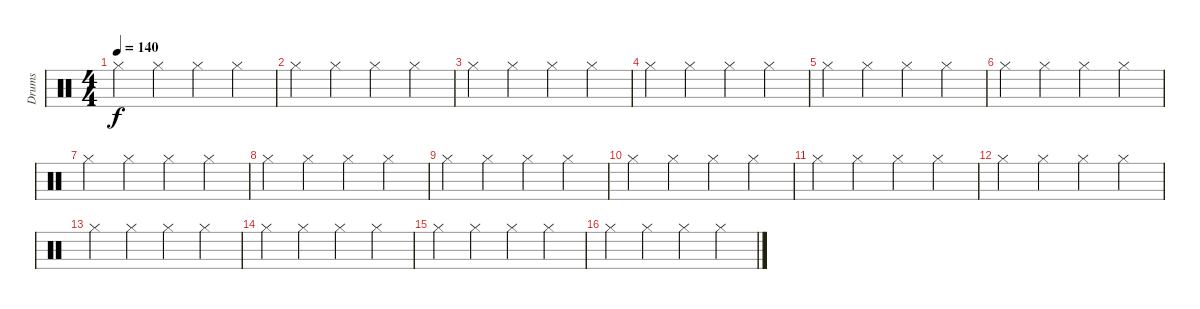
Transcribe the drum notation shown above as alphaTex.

\track ("Drums" "Drums") {instrument percussion}
\staff {score}
\articulation defaults
\ts (4 4)
\tempo 140
\clef neutral
\ks c "Hi-Hat (closed)".4{dy f} "Hi-Hat (closed)".4 "Hi-Hat (closed)".4 "Hi-Hat (closed)".4
|
"Hi-Hat (closed)".4 "Hi-Hat (closed)".4 "Hi-Hat (closed)".4 "Hi-Hat (closed)".4 |
"Hi-Hat (closed)".4 "Hi-Hat (closed)".4 "Hi-Hat (closed)".4 "Hi-Hat (closed)".4 |
"Hi-Hat (closed)".4 "Hi-Hat (closed)".4 "Hi-Hat (closed)".4 "Hi-Hat (closed)".4 |
"Hi-Hat (closed)".4 "Hi-Hat (closed)".4 "Hi-Hat (closed)".4 "Hi-Hat (closed)".4 |
"Hi-Hat (closed)".4 "Hi-Hat (closed)".4 "Hi-Hat (closed)".4 "Hi-Hat (closed)".4 |
"Hi-Hat (closed)".4 "Hi-Hat (closed)".4 "Hi-Hat (closed)".4 "Hi-Hat (closed)".4 |
"Hi-Hat (closed)".4 "Hi-Hat (closed)".4 "Hi-Hat (closed)".4 "Hi-Hat (closed)".4 |
"Hi-Hat (closed)".4 "Hi-Hat (closed)".4 "Hi-Hat (closed)".4 "Hi-Hat (closed)".4 |
"Hi-Hat (closed)".4 "Hi-Hat (closed)".4 "Hi-Hat (closed)".4 "Hi-Hat (closed)".4 |
"Hi-Hat (closed)".4 "Hi-Hat (closed)".4 "Hi-Hat (closed)".4 "Hi-Hat (closed)".4 |
"Hi-Hat (closed)".4 "Hi-Hat (closed)".4 "Hi-Hat (closed)".4 "Hi-Hat (closed)".4 |
"Hi-Hat (closed)".4 "Hi-Hat (closed)".4 "Hi-Hat (closed)".4 "Hi-Hat (closed)".4 |
"Hi-Hat (closed)".4 "Hi-Hat (closed)".4 "Hi-Hat (closed)".4 "Hi-Hat (closed)".4 |
"Hi-Hat (closed)".4 "Hi-Hat (closed)".4 "Hi-Hat (closed)".4 "Hi-Hat (closed)".4 |
"Hi-Hat (closed)".4 "Hi-Hat (closed)".4 "Hi-Hat (closed)".4 "Hi-Hat (closed)".4
